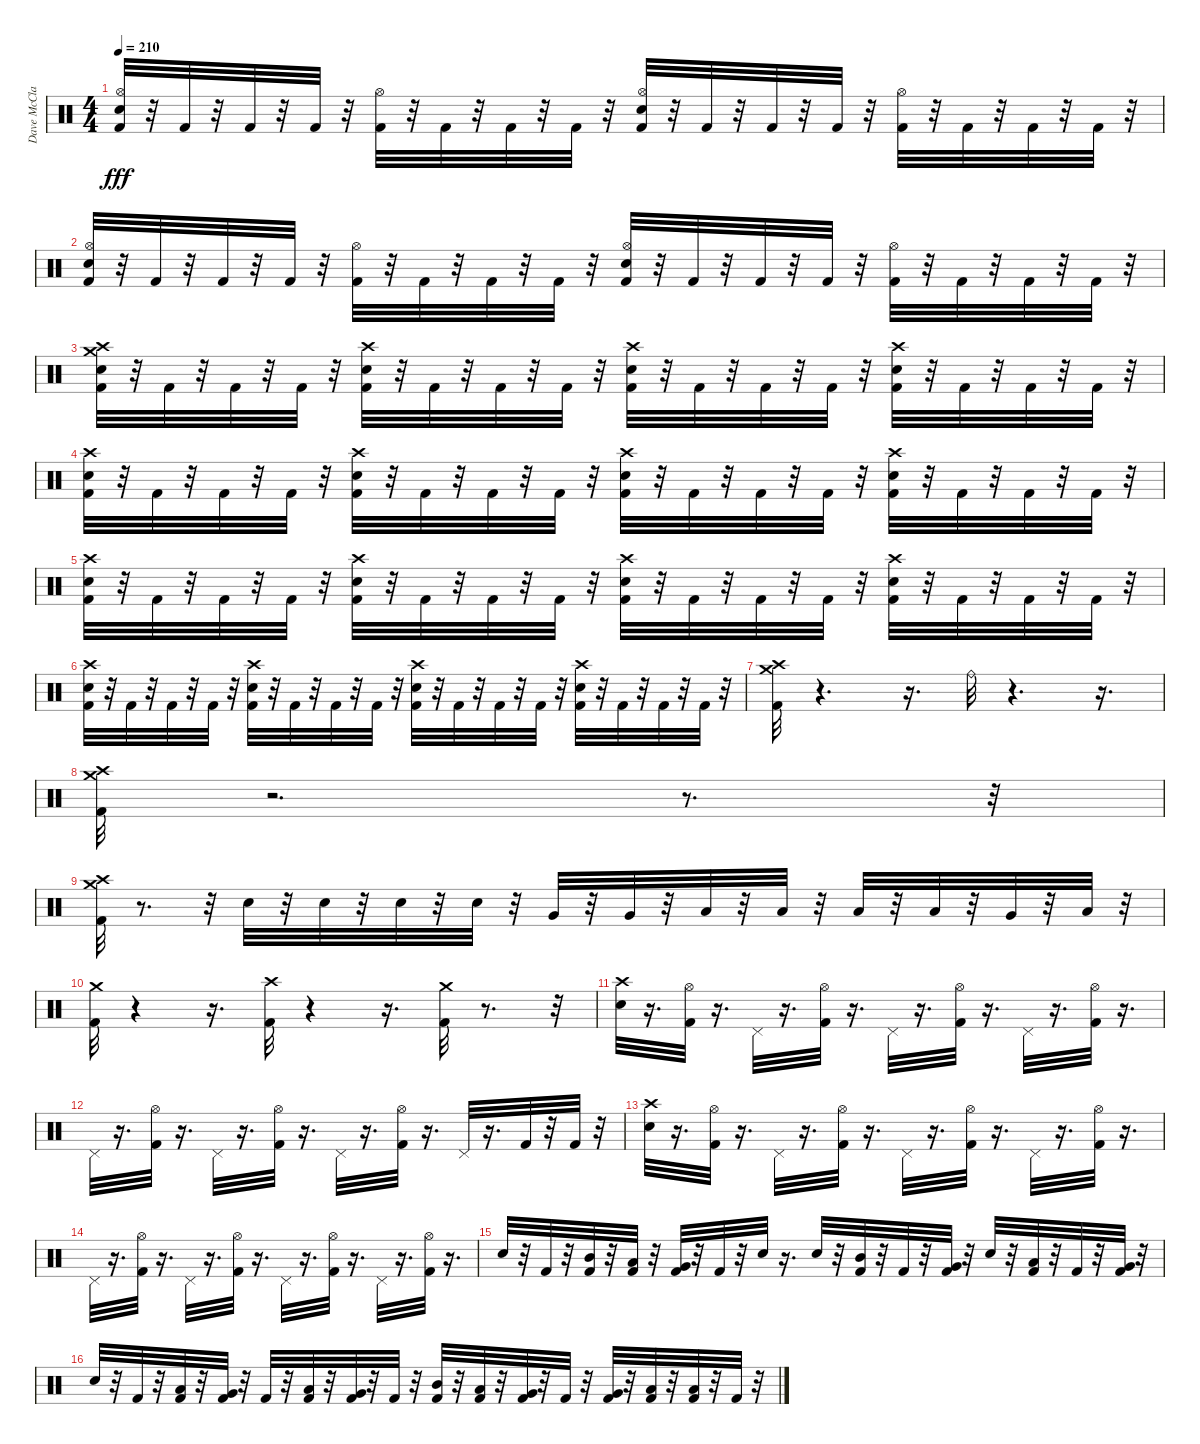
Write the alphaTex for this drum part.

\track ("Dave McClain" "Dave McCla") {instrument percussion}
\staff {score}
\articulation defaults
\ts (4 4)
\tempo 210
\clef neutral
\ks c
("Snare (hit) 2" "Hi-Hat (open)" "Kick (hit) 2").32{dy fff} r.32 "Kick (hit) 2".32 r.32 "Kick (hit) 2".32 r.32 "Kick (hit) 2".32 r.32 ("Hi-Hat (open)" "Kick (hit) 2").32 r.32 "Kick (hit) 2".32 r.32 "Kick (hit) 2".32 r.32 "Kick (hit) 2".32 r.32 ("Snare (hit) 2" "Hi-Hat (open)" "Kick (hit) 2").32 r.32 "Kick (hit) 2".32 r.32 "Kick (hit) 2".32 r.32 "Kick (hit) 2".32 r.32 ("Hi-Hat (open)" "Kick (hit) 2").32 r.32 "Kick (hit) 2".32 r.32 "Kick (hit) 2".32 r.32 "Kick (hit) 2".32 r.32 |
("Snare (hit) 2" "Hi-Hat (open)" "Kick (hit) 2").32 r.32 "Kick (hit) 2".32 r.32 "Kick (hit) 2".32 r.32 "Kick (hit) 2".32 r.32 ("Hi-Hat (open)" "Kick (hit) 2").32 r.32 "Kick (hit) 2".32 r.32 "Kick (hit) 2".32 r.32 "Kick (hit) 2".32 r.32 ("Snare (hit) 2" "Hi-Hat (open)" "Kick (hit) 2").32 r.32 "Kick (hit) 2".32 r.32 "Kick (hit) 2".32 r.32 "Kick (hit) 2".32 r.32 ("Hi-Hat (open)" "Kick (hit) 2").32 r.32 "Kick (hit) 2".32 r.32 "Kick (hit) 2".32 r.32 "Kick (hit) 2".32 r.32 |
("Snare (hit) 2" "Crash medium (hit)" "Crash high (hit)" "Kick (hit) 2").32 r.32 "Kick (hit) 2".32 r.32 "Kick (hit) 2".32 r.32 "Kick (hit) 2".32 r.32 ("Crash high (hit)" "Snare (hit) 2" "Kick (hit) 2").32 r.32 "Kick (hit) 2".32 r.32 "Kick (hit) 2".32 r.32 "Kick (hit) 2".32 r.32 ("Crash high (hit)" "Snare (hit) 2" "Kick (hit) 2").32 r.32 "Kick (hit) 2".32 r.32 "Kick (hit) 2".32 r.32 "Kick (hit) 2".32 r.32 ("Crash high (hit)" "Snare (hit) 2" "Kick (hit) 2").32 r.32 "Kick (hit) 2".32 r.32 "Kick (hit) 2".32 r.32 "Kick (hit) 2".32 r.32 |
("Crash high (hit)" "Snare (hit) 2" "Kick (hit) 2").32 r.32 "Kick (hit) 2".32 r.32 "Kick (hit) 2".32 r.32 "Kick (hit) 2".32 r.32 ("Crash high (hit)" "Snare (hit) 2" "Kick (hit) 2").32 r.32 "Kick (hit) 2".32 r.32 "Kick (hit) 2".32 r.32 "Kick (hit) 2".32 r.32 ("Crash high (hit)" "Snare (hit) 2" "Kick (hit) 2").32 r.32 "Kick (hit) 2".32 r.32 "Kick (hit) 2".32 r.32 "Kick (hit) 2".32 r.32 ("Crash high (hit)" "Snare (hit) 2" "Kick (hit) 2").32 r.32 "Kick (hit) 2".32 r.32 "Kick (hit) 2".32 r.32 "Kick (hit) 2".32 r.32 |
("Crash high (hit)" "Snare (hit) 2" "Kick (hit) 2").32 r.32 "Kick (hit) 2".32 r.32 "Kick (hit) 2".32 r.32 "Kick (hit) 2".32 r.32 ("Crash high (hit)" "Snare (hit) 2" "Kick (hit) 2").32 r.32 "Kick (hit) 2".32 r.32 "Kick (hit) 2".32 r.32 "Kick (hit) 2".32 r.32 ("Crash high (hit)" "Snare (hit) 2" "Kick (hit) 2").32 r.32 "Kick (hit) 2".32 r.32 "Kick (hit) 2".32 r.32 "Kick (hit) 2".32 r.32 ("Crash high (hit)" "Snare (hit) 2" "Kick (hit) 2").32 r.32 "Kick (hit) 2".32 r.32 "Kick (hit) 2".32 r.32 "Kick (hit) 2".32 r.32 |
("Crash high (hit)" "Snare (hit) 2" "Kick (hit) 2").32 r.32 "Kick (hit) 2".32 r.32 "Kick (hit) 2".32 r.32 "Kick (hit) 2".32 r.32 ("Crash high (hit)" "Snare (hit) 2" "Kick (hit) 2").32 r.32 "Kick (hit) 2".32 r.32 "Kick (hit) 2".32 r.32 "Kick (hit) 2".32 r.32 ("Crash high (hit)" "Snare (hit) 2" "Kick (hit) 2").32 r.32 "Kick (hit) 2".32 r.32 "Kick (hit) 2".32 r.32 "Kick (hit) 2".32 r.32 ("Crash high (hit)" "Snare (hit) 2" "Kick (hit) 2").32 r.32 "Kick (hit) 2".32 r.32 "Kick (hit) 2".32 r.32 "Kick (hit) 2".32 r.32 |
("Crash medium (hit)" "Crash high (hit)" "Kick (hit) 2").32 r.4{d} r.16{d} "Ride (bell)".32 r.4{d} r.16{d} |
("Crash medium (hit)" "Crash high (hit)" "Kick (hit) 2").32 r.2{d} r.8{d} r.32 |
("Crash medium (hit)" "Crash high (hit)" "Kick (hit) 2").32 r.8{d} r.32 "Snare (hit) 2".32 r.32 "Snare (hit) 2".32 r.32 "Snare (hit) 2".32 r.32 "Snare (hit) 2".32 r.32 "Very Low Tom (hit)".32 r.32 "Very Low Tom (hit)".32 r.32 "Low Floor Tom (hit)".32 r.32 "Low Floor Tom (hit)".32 r.32 "Low Tom (hit)".32 r.32 "Low Tom (hit)".32 r.32 "Very Low Tom (hit)".32 r.32 "Low Floor Tom (hit)".32 r.32 |
("Crash medium (hit)" "Kick (hit) 2").32 r.4 r.16{d} ("Crash high (hit)" "Kick (hit) 2").32 r.4 r.16{d} ("Crash medium (hit)" "Kick (hit) 2").32 r.8{d} r.32 |
("Crash high (hit)" "Snare (hit) 2").32 r.16{d} ("Hi-Hat (open)" "Kick (hit) 2").32 r.16{d} "Pedal Hi-Hat (hit)".32 r.16{d} ("Hi-Hat (open)" "Kick (hit) 2").32 r.16{d} "Pedal Hi-Hat (hit)".32 r.16{d} ("Hi-Hat (open)" "Kick (hit) 2").32 r.16{d} "Pedal Hi-Hat (hit)".32 r.16{d} ("Hi-Hat (open)" "Kick (hit) 2").32 r.16{d} |
"Pedal Hi-Hat (hit)".32 r.16{d} ("Hi-Hat (open)" "Kick (hit) 2").32 r.16{d} "Pedal Hi-Hat (hit)".32 r.16{d} ("Hi-Hat (open)" "Kick (hit) 2").32 r.16{d} "Pedal Hi-Hat (hit)".32 r.16{d} ("Hi-Hat (open)" "Kick (hit) 2").32 r.16{d} "Pedal Hi-Hat (hit)".32 r.16{d} "Kick (hit) 2".32 r.32 "Kick (hit) 2".32 r.32 |
("Crash high (hit)" "Snare (hit) 2").32 r.16{d} ("Hi-Hat (open)" "Kick (hit) 2").32 r.16{d} "Pedal Hi-Hat (hit)".32 r.16{d} ("Hi-Hat (open)" "Kick (hit) 2").32 r.16{d} "Pedal Hi-Hat (hit)".32 r.16{d} ("Hi-Hat (open)" "Kick (hit) 2").32 r.16{d} "Pedal Hi-Hat (hit)".32 r.16{d} ("Hi-Hat (open)" "Kick (hit) 2").32 r.16{d} |
"Pedal Hi-Hat (hit)".32 r.16{d} ("Hi-Hat (open)" "Kick (hit) 2").32 r.16{d} "Pedal Hi-Hat (hit)".32 r.16{d} ("Hi-Hat (open)" "Kick (hit) 2").32 r.16{d} "Pedal Hi-Hat (hit)".32 r.16{d} ("Hi-Hat (open)" "Kick (hit) 2").32 r.16{d} "Pedal Hi-Hat (hit)".32 r.16{d} ("Hi-Hat (open)" "Kick (hit) 2").32 r.16{d} |
"Snare (hit) 2".32 r.32 "Kick (hit) 2".32 r.32 ("Mid Tom (hit)" "Kick (hit) 2").32 r.32 ("Low Tom (hit)" "Kick (hit) 2").32 r.32 ("Very Low Tom (hit)" "Kick (hit) 2").32 r.32 "Kick (hit) 2".32 r.32 "Snare (hit) 2".32 r.16{d} "Snare (hit) 2".32 r.32 ("Mid Tom (hit)" "Kick (hit) 2").32 r.32 "Kick (hit) 2".32 r.32 ("Very Low Tom (hit)" "Kick (hit) 2").32 r.32 "Snare (hit) 2".32 r.32 ("Low Tom (hit)" "Kick (hit) 2").32 r.32 "Kick (hit) 2".32 r.32 ("Very Low Tom (hit)" "Kick (hit) 2").32 r.32 |
"Snare (hit) 2".32 r.32 "Kick (hit) 2".32 r.32 ("Low Tom (hit)" "Kick (hit) 2").32 r.32 ("Very Low Tom (hit)" "Kick (hit) 2").32 r.32 "Kick (hit) 2".32 r.32 ("Low Tom (hit)" "Kick (hit) 2").32 r.32 ("Very Low Tom (hit)" "Kick (hit) 2").32 r.32 "Kick (hit) 2".32 r.32 ("Mid Tom (hit)" "Kick (hit) 2").32 r.32 ("Low Tom (hit)" "Kick (hit) 2").32 r.32 ("Very Low Tom (hit)" "Kick (hit) 2").32 r.32 "Kick (hit) 2".32 r.32 ("Very Low Tom (hit)" "Kick (hit) 2").32 r.32 ("Low Floor Tom (hit)" "Kick (hit) 2").32 r.32 ("Low Floor Tom (hit)" "Kick (hit) 2").32 r.32 "Kick (hit) 2".32 r.32
